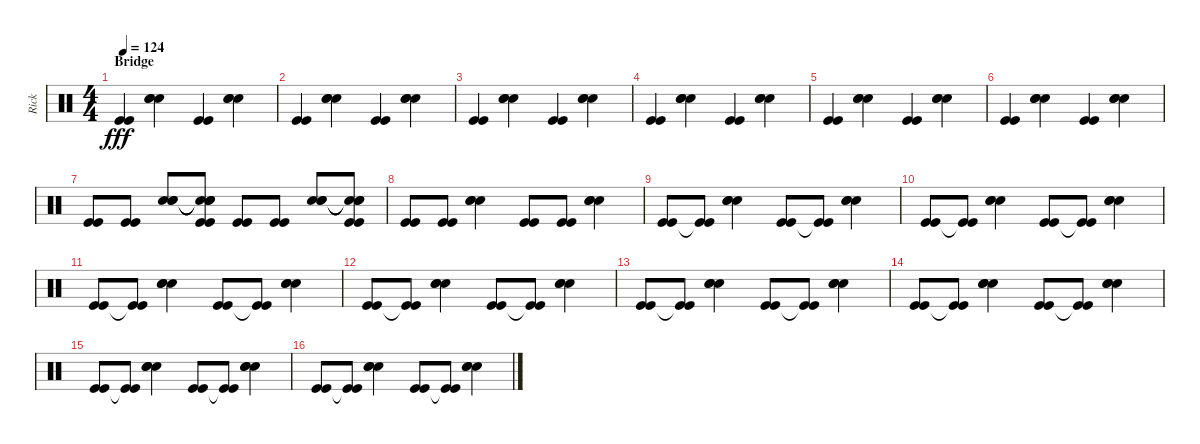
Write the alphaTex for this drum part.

\track ("Rick" "Rick") {instrument percussion}
\staff {score}
\articulation defaults
\ts (4 4)
\section ("" "Bridge")
\tempo 124
\clef neutral
\ks c
("Kick (hit)" "Kick (hit)").4{dy fff} ("Snare (hit) 2" "Snare (hit) 2" "Snare (hit) 2").4 ("Kick (hit)" "Kick (hit)").4 ("Snare (hit) 2" "Snare (hit) 2" "Snare (hit) 2").4 |
("Kick (hit)" "Kick (hit)").4 ("Snare (hit) 2" "Snare (hit) 2" "Snare (hit) 2").4 ("Kick (hit)" "Kick (hit)").4 ("Snare (hit) 2" "Snare (hit) 2" "Snare (hit) 2").4 |
("Kick (hit)" "Kick (hit)").4 ("Snare (hit) 2" "Snare (hit) 2" "Snare (hit) 2").4 ("Kick (hit)" "Kick (hit)").4 ("Snare (hit) 2" "Snare (hit) 2" "Snare (hit) 2").4 |
("Kick (hit)" "Kick (hit)").4 ("Snare (hit) 2" "Snare (hit) 2" "Snare (hit) 2").4 ("Kick (hit)" "Kick (hit)").4 ("Snare (hit) 2" "Snare (hit) 2" "Snare (hit) 2").4 |
("Kick (hit)" "Kick (hit)").4 ("Snare (hit) 2" "Snare (hit) 2" "Snare (hit) 2").4 ("Kick (hit)" "Kick (hit)").4 ("Snare (hit) 2" "Snare (hit) 2" "Snare (hit) 2").4 |
("Kick (hit)" "Kick (hit)").4 ("Snare (hit) 2" "Snare (hit) 2" "Snare (hit) 2").4 ("Kick (hit)" "Kick (hit)").4 ("Snare (hit) 2" "Snare (hit) 2" "Snare (hit) 2").4 |
("Kick (hit)" "Kick (hit)").8 ("Kick (hit)" "Kick (hit)").8 ("Snare (hit) 2" "Snare (hit) 2" "Snare (hit) 2").8 ("Snare (hit) 2"{t} "Snare (hit) 2"{t} "Snare (hit) 2"{t} "Kick (hit)" "Kick (hit)").8 ("Kick (hit)" "Kick (hit)").8 ("Kick (hit)" "Kick (hit)").8 ("Snare (hit) 2" "Snare (hit) 2" "Snare (hit) 2").8 ("Snare (hit)"{t} "Snare (hit)"{t} "Snare (hit)"{t} "Kick (hit)" "Kick (hit)").8 |
("Kick (hit)" "Kick (hit)").8 ("Kick (hit)" "Kick (hit)").8 ("Snare (hit) 2" "Snare (hit) 2" "Snare (hit) 2").4 ("Kick (hit)" "Kick (hit)").8 ("Kick (hit)" "Kick (hit)").8 ("Snare (hit) 2" "Snare (hit) 2" "Snare (hit) 2").4 |
("Kick (hit)" "Kick (hit)").8 ("Kick (hit)"{t} "Kick (hit)").8 ("Snare (hit) 2" "Snare (hit) 2" "Snare (hit) 2").4 ("Kick (hit)" "Kick (hit)").8 ("Kick (hit)"{t} "Kick (hit)").8 ("Snare (hit) 2" "Snare (hit) 2" "Snare (hit) 2").4 |
("Kick (hit)" "Kick (hit)").8 ("Kick (hit)"{t} "Kick (hit)").8 ("Snare (hit) 2" "Snare (hit) 2" "Snare (hit) 2").4 ("Kick (hit)" "Kick (hit)").8 ("Kick (hit)"{t} "Kick (hit)").8 ("Snare (hit) 2" "Snare (hit) 2" "Snare (hit) 2").4 |
("Kick (hit)" "Kick (hit)").8 ("Kick (hit)"{t} "Kick (hit)").8 ("Snare (hit) 2" "Snare (hit) 2" "Snare (hit) 2").4 ("Kick (hit)" "Kick (hit)").8 ("Kick (hit)"{t} "Kick (hit)").8 ("Snare (hit) 2" "Snare (hit) 2" "Snare (hit) 2").4 |
("Kick (hit)" "Kick (hit)").8 ("Kick (hit)"{t} "Kick (hit)").8 ("Snare (hit) 2" "Snare (hit) 2" "Snare (hit) 2").4 ("Kick (hit)" "Kick (hit)").8 ("Kick (hit)"{t} "Kick (hit)").8 ("Snare (hit) 2" "Snare (hit) 2" "Snare (hit) 2").4 |
("Kick (hit)" "Kick (hit)").8 ("Kick (hit)"{t} "Kick (hit)").8 ("Snare (hit) 2" "Snare (hit) 2" "Snare (hit) 2").4 ("Kick (hit)" "Kick (hit)").8 ("Kick (hit)"{t} "Kick (hit)").8 ("Snare (hit) 2" "Snare (hit) 2" "Snare (hit) 2").4 |
("Kick (hit)" "Kick (hit)").8 ("Kick (hit)"{t} "Kick (hit)").8 ("Snare (hit) 2" "Snare (hit) 2" "Snare (hit) 2").4 ("Kick (hit)" "Kick (hit)").8 ("Kick (hit)"{t} "Kick (hit)").8 ("Snare (hit) 2" "Snare (hit) 2" "Snare (hit) 2").4 |
("Kick (hit)" "Kick (hit)").8 ("Kick (hit)"{t} "Kick (hit)").8 ("Snare (hit) 2" "Snare (hit) 2" "Snare (hit) 2").4 ("Kick (hit)" "Kick (hit)").8 ("Kick (hit)"{t} "Kick (hit)").8 ("Snare (hit) 2" "Snare (hit) 2" "Snare (hit) 2").4 |
("Kick (hit)" "Kick (hit)").8 ("Kick (hit)"{t} "Kick (hit)").8 ("Snare (hit) 2" "Snare (hit) 2" "Snare (hit) 2").4 ("Kick (hit)" "Kick (hit)").8 ("Kick (hit)"{t} "Kick (hit)").8 ("Snare (hit) 2" "Snare (hit) 2" "Snare (hit) 2").4
